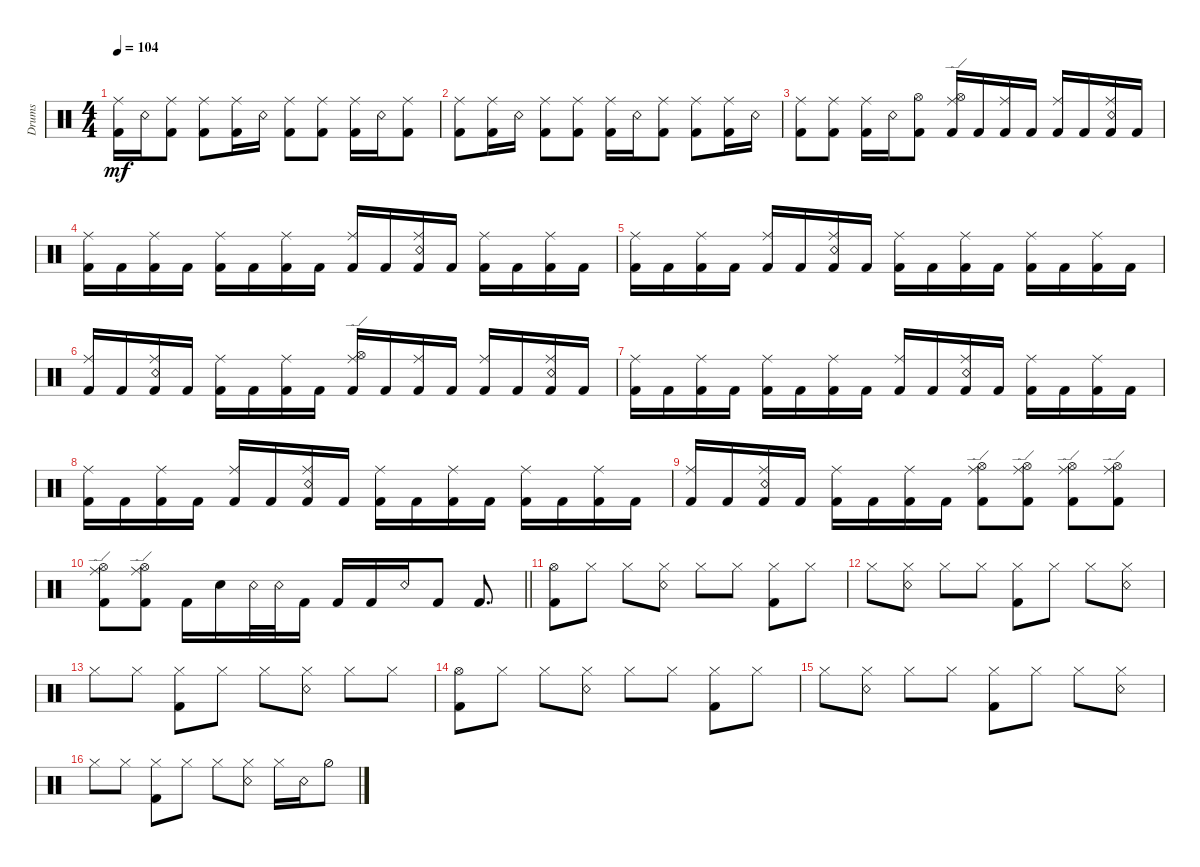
\defaultSystemsLayout 4
\bracketExtendMode groupsimilarinstruments
\otherSystemsTrackNameOrientation horizontal
\track ("Martin Lopez" "Drums") {instrument percussion}
\staff {score}
\articulation defaults
\ts (4 4)
\tempo 104
\clef neutral
\ks c
("Kick (hit) 2" "Ride (middle)").16{dy mf beam Down} "Snare (rim shot)".16{beam Down} ("Kick (hit) 2" "Ride (middle)").8{beam Down} ("Kick (hit) 2" "Ride (middle)").8{beam Down} ("Kick (hit) 2" "Ride (middle)").16{beam Down} "Snare (rim shot)".16{beam Down} ("Kick (hit) 2" "Ride (middle)").8{beam Down} ("Kick (hit) 2" "Ride (middle)").8{beam Down} ("Kick (hit) 2" "Ride (middle)").16{beam Down} "Snare (rim shot)".16{beam Down} ("Kick (hit) 2" "Ride (middle)").8{beam Down} |
("Kick (hit) 2" "Ride (middle)").8{beam Down} ("Kick (hit) 2" "Ride (middle)").16{beam Down} "Snare (rim shot)".16{beam Down} ("Kick (hit) 2" "Ride (middle)").8{beam Down} ("Kick (hit) 2" "Ride (middle)").8{beam Down} ("Kick (hit) 2" "Ride (middle)").16{beam Down} "Snare (rim shot)".16{beam Down} ("Kick (hit) 2" "Ride (middle)").8{beam Down} ("Kick (hit) 2" "Ride (middle)").8{beam Down} ("Kick (hit) 2" "Ride (middle)").16{beam Down} "Snare (rim shot)".16{beam Down} |
("Kick (hit) 2" "Ride (middle)").8{beam Down} ("Kick (hit) 2" "Ride (middle)").8{beam Down} ("Kick (hit) 2" "Ride (middle)").16{beam Down} "Snare (rim shot)".16{beam Down} ("Kick (hit) 2" "Hi-Hat (open)").8{beam Down} ("Kick (hit) 2" "Ride (edge)" "Hi-Hat (open)").16{beam Up} "Kick (hit) 2".16{beam Up} ("Kick (hit) 2" "Ride (middle)").16{beam Up} "Kick (hit) 2".16{beam Up} ("Kick (hit) 2" "Ride (middle)").16{beam Up} "Kick (hit) 2".16{beam Up} ("Kick (hit) 2" "Snare (rim shot)" "Ride (middle)").16{beam Up} "Kick (hit) 2".16{beam Up} |
("Kick (hit) 2" "Ride (middle)").16{beam Down} "Kick (hit) 2".16{beam Down} ("Kick (hit) 2" "Ride (middle)").16{beam Down} "Kick (hit) 2".16{beam Down} ("Kick (hit) 2" "Ride (middle)").16{beam Down} "Kick (hit) 2".16{beam Down} ("Kick (hit) 2" "Ride (middle)").16{beam Down} "Kick (hit) 2".16{beam Down} ("Kick (hit) 2" "Ride (middle)").16{beam Up} "Kick (hit) 2".16{beam Up} ("Kick (hit) 2" "Ride (middle)" "Snare (rim shot)").16{beam Up} "Kick (hit) 2".16{beam Up} ("Kick (hit) 2" "Ride (middle)").16{beam Down} "Kick (hit) 2".16{beam Down} ("Kick (hit) 2" "Ride (middle)").16{beam Down} "Kick (hit) 2".16{beam Down} |
("Kick (hit) 2" "Ride (middle)").16{beam Down} "Kick (hit) 2".16{beam Down} ("Kick (hit) 2" "Ride (middle)").16{beam Down} "Kick (hit) 2".16{beam Down} ("Kick (hit) 2" "Ride (middle)").16{beam Up} "Kick (hit) 2".16{beam Up} ("Kick (hit) 2" "Ride (middle)" "Snare (rim shot)").16{beam Up} "Kick (hit) 2".16{beam Up} ("Kick (hit) 2" "Ride (middle)").16{beam Down} "Kick (hit) 2".16{beam Down} ("Kick (hit) 2" "Ride (middle)").16{beam Down} "Kick (hit) 2".16{beam Down} ("Kick (hit) 2" "Ride (middle)").16{beam Down} "Kick (hit) 2".16{beam Down} ("Kick (hit) 2" "Ride (middle)").16{beam Down} "Kick (hit) 2".16{beam Down} |
("Kick (hit) 2" "Ride (middle)").16{beam Up} "Kick (hit) 2".16{beam Up} ("Kick (hit) 2" "Ride (middle)" "Snare (rim shot)").16{beam Up} "Kick (hit) 2".16{beam Up} ("Kick (hit) 2" "Ride (middle)").16{beam Down} "Kick (hit) 2".16{beam Down} ("Kick (hit) 2" "Ride (middle)").16{beam Down} "Kick (hit) 2".16{beam Down} ("Kick (hit) 2" "Ride (edge)" "Hi-Hat (open)").16{beam Up} "Kick (hit) 2".16{beam Up} ("Kick (hit) 2" "Ride (middle)").16{beam Up} "Kick (hit) 2".16{beam Up} ("Kick (hit) 2" "Ride (middle)").16{beam Up} "Kick (hit) 2".16{beam Up} ("Kick (hit) 2" "Ride (middle)" "Snare (rim shot)").16{beam Up} "Kick (hit) 2".16{beam Up} |
("Kick (hit) 2" "Ride (middle)").16{beam Down} "Kick (hit) 2".16{beam Down} ("Kick (hit) 2" "Ride (middle)").16{beam Down} "Kick (hit) 2".16{beam Down} ("Kick (hit) 2" "Ride (middle)").16{beam Down} "Kick (hit) 2".16{beam Down} ("Kick (hit) 2" "Ride (middle)").16{beam Down} "Kick (hit) 2".16{beam Down} ("Kick (hit) 2" "Ride (middle)").16{beam Up} "Kick (hit) 2".16{beam Up} ("Kick (hit) 2" "Ride (middle)" "Snare (rim shot)").16{beam Up} "Kick (hit) 2".16{beam Up} ("Kick (hit) 2" "Ride (middle)").16{beam Down} "Kick (hit) 2".16{beam Down} ("Kick (hit) 2" "Ride (middle)").16{beam Down} "Kick (hit) 2".16{beam Down} |
("Kick (hit) 2" "Ride (middle)").16{beam Down} "Kick (hit) 2".16{beam Down} ("Kick (hit) 2" "Ride (middle)").16{beam Down} "Kick (hit) 2".16{beam Down} ("Kick (hit) 2" "Ride (middle)").16{beam Up} "Kick (hit) 2".16{beam Up} ("Kick (hit) 2" "Ride (middle)" "Snare (rim shot)").16{beam Up} "Kick (hit) 2".16{beam Up} ("Kick (hit) 2" "Ride (middle)").16{beam Down} "Kick (hit) 2".16{beam Down} ("Kick (hit) 2" "Ride (middle)").16{beam Down} "Kick (hit) 2".16{beam Down} ("Kick (hit) 2" "Ride (middle)").16{beam Down} "Kick (hit) 2".16{beam Down} ("Kick (hit) 2" "Ride (middle)").16{beam Down} "Kick (hit) 2".16{beam Down} |
("Kick (hit) 2" "Ride (middle)").16{beam Up} "Kick (hit) 2".16{beam Up} ("Kick (hit) 2" "Ride (middle)" "Snare (rim shot)").16{beam Up} "Kick (hit) 2".16{beam Up} ("Kick (hit) 2" "Ride (middle)").16{beam Down} "Kick (hit) 2".16{beam Down} ("Kick (hit) 2" "Ride (middle)").16{beam Down} "Kick (hit) 2".16{beam Down} ("Ride (edge)" "Hi-Hat (open)" "Kick (hit) 2").8{beam Down} ("Ride (edge)" "Hi-Hat (open)" "Kick (hit) 2").8{beam Down} ("Ride (edge)" "Hi-Hat (open)" "Kick (hit) 2").8{beam Down} ("Ride (edge)" "Hi-Hat (open)" "Kick (hit) 2").8{beam Down} |
\barLineRight lightlight
("Ride (edge)" "Hi-Hat (open)" "Kick (hit) 2").8{beam Down} ("Ride (edge)" "Hi-Hat (open)" "Kick (hit) 2").8{beam Down} "Kick (hit) 2".16{beam Down} "Snare (hit) 2".16{beam Down} "Snare (rim shot)".32{beam Down} "Snare (rim shot)".32{beam Down} "Kick (hit) 2".16{beam Down} "Kick (hit) 2".16{beam Up} "Kick (hit) 2".16{beam Up} "Snare (rim shot)".16{beam Up} "Kick (hit) 2".8{beam Up} "Kick (hit) 2".8{d beam Up} |
("Kick (hit) 2" "Hi-Hat (open)").8{beam Down} "Hi-Hat (closed)".8{beam Down} "Hi-Hat (closed)".8{beam Down} ("Hi-Hat (closed)" "Snare (rim shot)").8{beam Down} "Hi-Hat (closed)".8{beam Down} "Hi-Hat (closed)".8{beam Down} ("Kick (hit) 2" "Hi-Hat (closed)").8{beam Down} "Hi-Hat (closed)".8{beam Down} |
"Hi-Hat (closed)".8{beam Down} ("Hi-Hat (closed)" "Snare (rim shot)").8{beam Down} "Hi-Hat (closed)".8{beam Down} "Hi-Hat (closed)".8{beam Down} ("Kick (hit) 2" "Hi-Hat (closed)").8{beam Down} "Hi-Hat (closed)".8{beam Down} "Hi-Hat (closed)".8{beam Down} ("Hi-Hat (closed)" "Snare (rim shot)").8{beam Down} |
"Hi-Hat (closed)".8{beam Down} "Hi-Hat (closed)".8{beam Down} ("Hi-Hat (closed)" "Kick (hit) 2").8{beam Down} "Hi-Hat (closed)".8{beam Down} "Hi-Hat (closed)".8{beam Down} ("Hi-Hat (closed)" "Snare (rim shot)").8{beam Down} "Hi-Hat (closed)".8{beam Down} "Hi-Hat (closed)".8{beam Down} |
("Kick (hit) 2" "Hi-Hat (open)").8{beam Down} "Hi-Hat (closed)".8{beam Down} "Hi-Hat (closed)".8{beam Down} ("Hi-Hat (closed)" "Snare (rim shot)").8{beam Down} "Hi-Hat (closed)".8{beam Down} "Hi-Hat (closed)".8{beam Down} ("Kick (hit) 2" "Hi-Hat (closed)").8{beam Down} "Hi-Hat (closed)".8{beam Down} |
"Hi-Hat (closed)".8{beam Down} ("Hi-Hat (closed)" "Snare (rim shot)").8{beam Down} "Hi-Hat (closed)".8{beam Down} "Hi-Hat (closed)".8{beam Down} ("Kick (hit) 2" "Hi-Hat (closed)").8{beam Down} "Hi-Hat (closed)".8{beam Down} "Hi-Hat (closed)".8{beam Down} ("Hi-Hat (closed)" "Snare (rim shot)").8{beam Down} |
"Hi-Hat (closed)".8{beam Down} "Hi-Hat (closed)".8{beam Down} ("Hi-Hat (closed)" "Kick (hit) 2").8{beam Down} "Hi-Hat (closed)".8{beam Down} "Hi-Hat (closed)".8{beam Down} ("Hi-Hat (closed)" "Snare (rim shot)").8{beam Down} "Hi-Hat (closed)".16{beam Down} "Snare (rim shot)".16{beam Down} "Hi-Hat (half)".8{beam Down}
